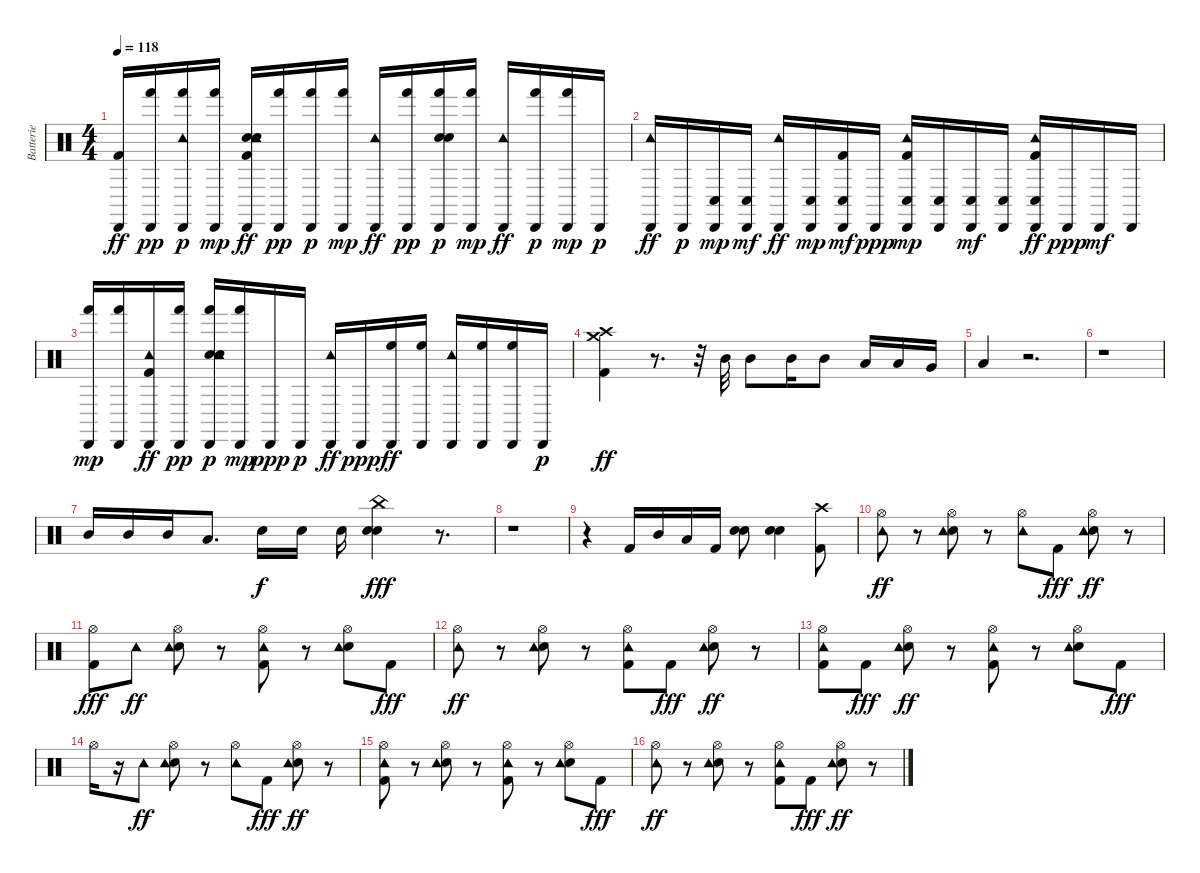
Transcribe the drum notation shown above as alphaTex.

\track ("Batterie" "Batterie") {instrument percussion}
\staff {score}
\articulation defaults
\ts (4 4)
\tempo 118
\clef neutral
\ks c
("Cabasa (hit)" "Kick (hit) 2").16{dy ff} ("Cabasa (hit)" "Hand (hit)").16{dy pp} ("Cabasa (hit)" "Tambourine (hit)" "Hand (hit)").16{dy p} ("Cabasa (hit)" "Hand (hit)").16{dy mp} ("Hand Clap (hit)" "Cabasa (hit)" "Tambourine (hit)" "Kick (hit) 2" "Snare (hit) 2").16{dy ff} ("Cabasa (hit)" "Hand (hit)").16{dy pp} ("Cabasa (hit)" "Hand (hit)").16{dy p} ("Cabasa (hit)" "Hand (hit)").16{dy mp} ("Cabasa (hit)" "Tambourine (hit)").16{dy ff} ("Cabasa (hit)" "Hand (hit)").16{dy pp} ("Hand Clap (hit)" "Cabasa (hit)" "Snare (hit) 2" "Hand (hit)").16{dy p} ("Cabasa (hit)" "Hand (hit)").16{dy mp} ("Cabasa (hit)" "Tambourine (hit)").16{dy ff} ("Cabasa (hit)" "Hand (hit)").16{dy p} ("Cabasa (hit)" "Hand (hit)").16{dy mp} "Cabasa (hit)".16{dy p} |
("Cabasa (hit)" "Tambourine (hit)").16{dy ff} "Cabasa (hit)".16{dy p} ("Cabasa (hit)" "Conga low (hit)").16{dy mp} ("Cabasa (hit)" "Conga low (hit)").16{dy mf} ("Cabasa (hit)" "Tambourine (hit)").16{dy ff} ("Cabasa (hit)" "Conga low (hit)").16{dy mp} ("Cabasa (hit)" "Kick (hit) 2" "Conga low (hit)").16{dy mf} "Cabasa (hit)".16{dy ppp} ("Cabasa (hit)" "Tambourine (hit)" "Kick (hit) 2" "Conga low (hit)").16{dy mp} ("Cabasa (hit)" "Conga low (hit)").16 ("Cabasa (hit)" "Conga low (hit)").16{dy mf} ("Cabasa (hit)" "Conga low (hit)").16 ("Cabasa (hit)" "Tambourine (hit)" "Kick (hit) 2" "Conga low (hit)").16{dy ff} "Cabasa (hit)".16{dy ppp} "Cabasa (hit)".16{dy mf} "Cabasa (hit)".16 |
("Cabasa (hit)" "Hand (hit)").16{dy mp} ("Cabasa (hit)" "Hand (hit)").16 ("Cabasa (hit)" "Tambourine (hit)" "Kick (hit) 2").16{dy ff} ("Cabasa (hit)" "Hand (hit)").16{dy pp} ("Hand Clap (hit)" "Cabasa (hit)" "Tambourine (hit)" "Snare (hit) 2" "Hand (hit)").16{dy p} ("Cabasa (hit)" "Hand (hit)").16{dy mp} "Cabasa (hit)".16{dy ppp} "Cabasa (hit)".16{dy p} ("Cabasa (hit)" "Tambourine (hit)").16{dy ff} "Cabasa (hit)".16{dy ppp} ("Cabasa (hit)" "High Floor Tom (hit)").16{dy ff} ("Cabasa (hit)" "High Floor Tom (hit)").16 ("Cabasa (hit)" "Tambourine (hit)").16 ("Cabasa (hit)" "High Floor Tom (hit)").16 ("Cabasa (hit)" "High Floor Tom (hit)").16 "Cabasa (hit)".16{dy p} |
("Crash medium (hit)" "Crash high (hit)" "Kick (hit) 2").4{dy ff} r.8{d} r.32 "Mid Tom (hit)".32 "Mid Tom (hit)".8 "Mid Tom (hit)".16 "Mid Tom (hit)".8 "Low Tom (hit)".16 "Low Tom (hit)".16 "Very Low Tom (hit)".16 |
"Low Floor Tom (hit)".4 r.2{d} |
r.1 |
"Mid Tom (hit)".16 "Mid Tom (hit)".16 "Mid Tom (hit)".16 "Low Tom (hit)".8{d} "Electric Snare (hit)".16{dy f} "Electric Snare (hit)".16 "Electric Snare (hit)".16 ("China (hit)" "Hand Clap (hit)" "Snare (hit) 2").4{dy fff} r.8{d} |
r.1 |
r.4 "Kick (hit) 2".16 "Mid Tom (hit)".16 "Low Floor Tom (hit)".16 "Kick (hit) 2".16 ("Snare (hit) 2" "Snare (hit) 2").8 ("Snare (hit) 2" "Snare (hit) 2").4 ("Crash high (hit)" "Kick (hit) 2").8 |
("Hi-Hat (open)" "Tambourine (hit)").8{dy ff} r.8 ("Snare (hit) 2" "Hi-Hat (open)" "Tambourine (hit)").8 r.8 ("Hi-Hat (open)" "Tambourine (hit)").8 "Kick (hit) 2".8{dy fff} ("Snare (hit) 2" "Hi-Hat (open)" "Tambourine (hit)").8{dy ff} r.8 |
("Kick (hit) 2" "Hi-Hat (open)").8{dy fff} "Tambourine (hit)".8{dy ff} ("Snare (hit) 2" "Hi-Hat (open)" "Tambourine (hit)").8 r.8 ("Kick (hit) 2" "Hi-Hat (open)" "Tambourine (hit)").8 r.8 ("Snare (hit) 2" "Hi-Hat (open)" "Tambourine (hit)").8 "Kick (hit) 2".8{dy fff} |
("Hi-Hat (open)" "Tambourine (hit)").8{dy ff} r.8 ("Snare (hit) 2" "Hi-Hat (open)" "Tambourine (hit)").8 r.8 ("Kick (hit) 2" "Hi-Hat (open)" "Tambourine (hit)").8 "Kick (hit) 2".8{dy fff} ("Snare (hit) 2" "Hi-Hat (open)" "Tambourine (hit)").8{dy ff} r.8 |
("Kick (hit) 2" "Hi-Hat (open)" "Tambourine (hit)").8 "Kick (hit) 2".8{dy fff} ("Snare (hit) 2" "Hi-Hat (open)" "Tambourine (hit)").8{dy ff} r.8 ("Kick (hit) 2" "Hi-Hat (open)" "Tambourine (hit)").8 r.8 ("Snare (hit) 2" "Hi-Hat (open)" "Tambourine (hit)").8 "Kick (hit) 2".8{dy fff} |
"Hi-Hat (open)".16 r.16 "Tambourine (hit)".8{dy ff} ("Snare (hit) 2" "Hi-Hat (open)" "Tambourine (hit)").8 r.8 ("Hi-Hat (open)" "Tambourine (hit)").8 "Kick (hit) 2".8{dy fff} ("Hi-Hat (open)" "Snare (hit) 2" "Tambourine (hit)").8{dy ff} r.8 |
("Kick (hit) 2" "Hi-Hat (open)" "Tambourine (hit)").8 r.8 ("Hi-Hat (open)" "Snare (hit) 2" "Tambourine (hit)").8 r.8 ("Kick (hit) 2" "Hi-Hat (open)" "Tambourine (hit)").8 r.8 ("Snare (hit) 2" "Hi-Hat (open)" "Tambourine (hit)").8 "Kick (hit) 2".8{dy fff} |
("Hi-Hat (open)" "Tambourine (hit)").8{dy ff} r.8 ("Hi-Hat (open)" "Snare (hit) 2" "Tambourine (hit)").8 r.8 ("Kick (hit) 2" "Hi-Hat (open)" "Tambourine (hit)").8 "Kick (hit) 2".8{dy fff} ("Snare (hit) 2" "Hi-Hat (open)" "Tambourine (hit)").8{dy ff} r.8
